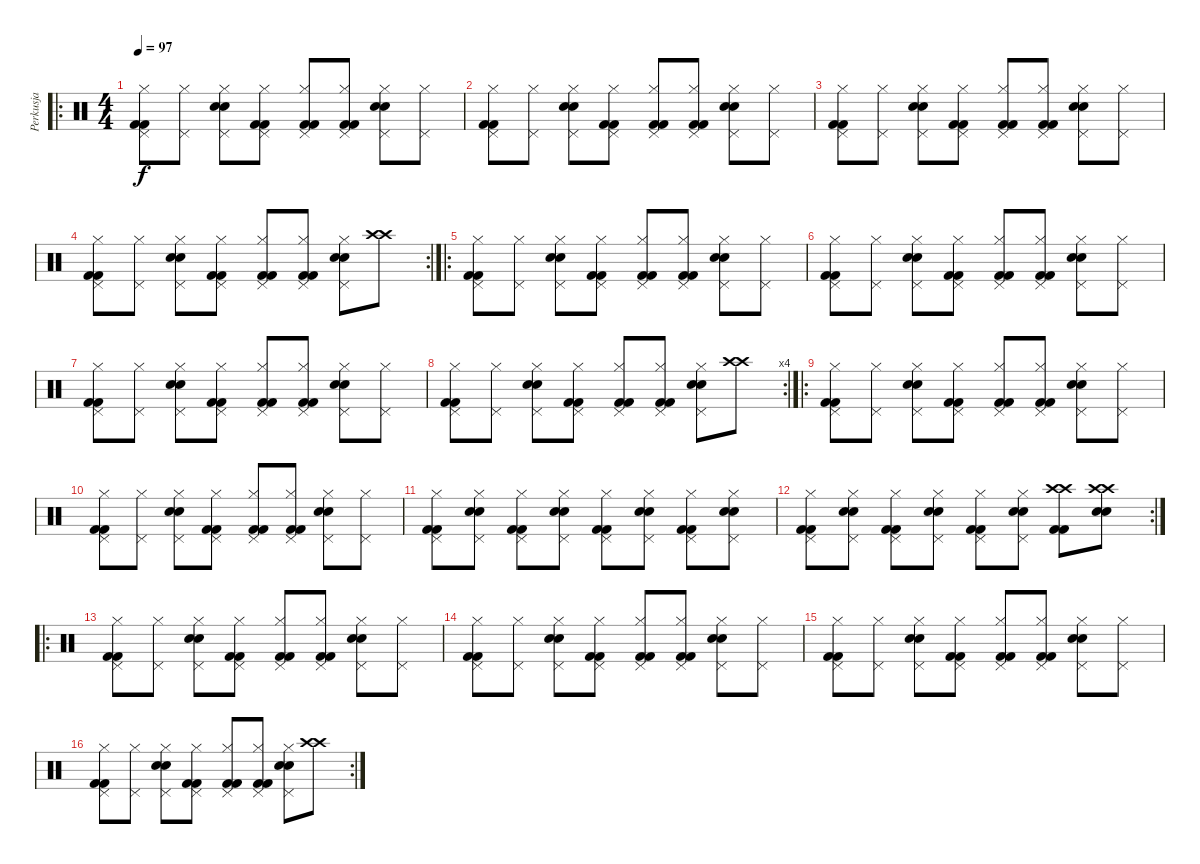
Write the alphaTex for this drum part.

\track ("Perkusja" "Perkusja") {instrument percussion}
\staff {score}
\articulation defaults
\ro
\ts (4 4)
\tempo 97
\clef neutral
\ks c
("Kick (hit) 2" "Kick (hit) 2" "Hi-Hat (closed)" "Pedal Hi-Hat (hit)").8{dy f} ("Hi-Hat (closed)" "Pedal Hi-Hat (hit)").8 ("Electric Snare (hit)" "Electric Snare (hit)" "Hi-Hat (closed)" "Pedal Hi-Hat (hit)").8 ("Kick (hit) 2" "Kick (hit) 2" "Hi-Hat (closed)" "Pedal Hi-Hat (hit)").8 ("Kick (hit) 2" "Kick (hit) 2" "Hi-Hat (closed)" "Pedal Hi-Hat (hit)").8 ("Kick (hit) 2" "Kick (hit) 2" "Hi-Hat (closed)" "Pedal Hi-Hat (hit)").8 ("Electric Snare (hit)" "Electric Snare (hit)" "Hi-Hat (closed)" "Pedal Hi-Hat (hit)").8 ("Hi-Hat (closed)" "Pedal Hi-Hat (hit)").8 |
("Kick (hit) 2" "Kick (hit) 2" "Hi-Hat (closed)" "Pedal Hi-Hat (hit)").8 ("Hi-Hat (closed)" "Pedal Hi-Hat (hit)").8 ("Electric Snare (hit)" "Electric Snare (hit)" "Hi-Hat (closed)" "Pedal Hi-Hat (hit)").8 ("Kick (hit) 2" "Kick (hit) 2" "Hi-Hat (closed)" "Pedal Hi-Hat (hit)").8 ("Kick (hit) 2" "Kick (hit) 2" "Hi-Hat (closed)" "Pedal Hi-Hat (hit)").8 ("Kick (hit) 2" "Kick (hit) 2" "Hi-Hat (closed)" "Pedal Hi-Hat (hit)").8 ("Electric Snare (hit)" "Electric Snare (hit)" "Hi-Hat (closed)" "Pedal Hi-Hat (hit)").8 ("Hi-Hat (closed)" "Pedal Hi-Hat (hit)").8 |
("Kick (hit) 2" "Kick (hit) 2" "Hi-Hat (closed)" "Pedal Hi-Hat (hit)").8 ("Hi-Hat (closed)" "Pedal Hi-Hat (hit)").8 ("Electric Snare (hit)" "Electric Snare (hit)" "Hi-Hat (closed)" "Pedal Hi-Hat (hit)").8 ("Kick (hit) 2" "Kick (hit) 2" "Hi-Hat (closed)" "Pedal Hi-Hat (hit)").8 ("Kick (hit) 2" "Kick (hit) 2" "Hi-Hat (closed)" "Pedal Hi-Hat (hit)").8 ("Kick (hit) 2" "Kick (hit) 2" "Hi-Hat (closed)" "Pedal Hi-Hat (hit)").8 ("Electric Snare (hit)" "Electric Snare (hit)" "Hi-Hat (closed)" "Pedal Hi-Hat (hit)").8 ("Hi-Hat (closed)" "Pedal Hi-Hat (hit)").8 |
\rc 2
("Kick (hit) 2" "Kick (hit) 2" "Hi-Hat (closed)" "Pedal Hi-Hat (hit)").8 ("Hi-Hat (closed)" "Pedal Hi-Hat (hit)").8 ("Electric Snare (hit)" "Electric Snare (hit)" "Hi-Hat (closed)" "Pedal Hi-Hat (hit)").8 ("Kick (hit) 2" "Kick (hit) 2" "Hi-Hat (closed)" "Pedal Hi-Hat (hit)").8 ("Kick (hit) 2" "Kick (hit) 2" "Hi-Hat (closed)" "Pedal Hi-Hat (hit)").8 ("Kick (hit) 2" "Kick (hit) 2" "Hi-Hat (closed)" "Pedal Hi-Hat (hit)").8 ("Electric Snare (hit)" "Electric Snare (hit)" "Hi-Hat (closed)" "Pedal Hi-Hat (hit)").8 ("Crash high (hit)" "Crash high (hit)").8 |
\ro
("Kick (hit) 2" "Kick (hit) 2" "Hi-Hat (closed)" "Pedal Hi-Hat (hit)").8 ("Hi-Hat (closed)" "Pedal Hi-Hat (hit)").8 ("Electric Snare (hit)" "Electric Snare (hit)" "Hi-Hat (closed)" "Pedal Hi-Hat (hit)").8 ("Kick (hit) 2" "Kick (hit) 2" "Hi-Hat (closed)" "Pedal Hi-Hat (hit)").8 ("Kick (hit) 2" "Kick (hit) 2" "Hi-Hat (closed)" "Pedal Hi-Hat (hit)").8 ("Kick (hit) 2" "Kick (hit) 2" "Hi-Hat (closed)" "Pedal Hi-Hat (hit)").8 ("Electric Snare (hit)" "Electric Snare (hit)" "Hi-Hat (closed)" "Pedal Hi-Hat (hit)").8 ("Hi-Hat (closed)" "Pedal Hi-Hat (hit)").8 |
("Kick (hit) 2" "Kick (hit) 2" "Hi-Hat (closed)" "Pedal Hi-Hat (hit)").8 ("Hi-Hat (closed)" "Pedal Hi-Hat (hit)").8 ("Electric Snare (hit)" "Electric Snare (hit)" "Hi-Hat (closed)" "Pedal Hi-Hat (hit)").8 ("Kick (hit) 2" "Kick (hit) 2" "Hi-Hat (closed)" "Pedal Hi-Hat (hit)").8 ("Kick (hit) 2" "Kick (hit) 2" "Hi-Hat (closed)" "Pedal Hi-Hat (hit)").8 ("Kick (hit) 2" "Kick (hit) 2" "Hi-Hat (closed)" "Pedal Hi-Hat (hit)").8 ("Electric Snare (hit)" "Electric Snare (hit)" "Hi-Hat (closed)" "Pedal Hi-Hat (hit)").8 ("Hi-Hat (closed)" "Pedal Hi-Hat (hit)").8 |
("Kick (hit) 2" "Kick (hit) 2" "Hi-Hat (closed)" "Pedal Hi-Hat (hit)").8 ("Hi-Hat (closed)" "Pedal Hi-Hat (hit)").8 ("Electric Snare (hit)" "Electric Snare (hit)" "Hi-Hat (closed)" "Pedal Hi-Hat (hit)").8 ("Kick (hit) 2" "Kick (hit) 2" "Hi-Hat (closed)" "Pedal Hi-Hat (hit)").8 ("Kick (hit) 2" "Kick (hit) 2" "Hi-Hat (closed)" "Pedal Hi-Hat (hit)").8 ("Kick (hit) 2" "Kick (hit) 2" "Hi-Hat (closed)" "Pedal Hi-Hat (hit)").8 ("Electric Snare (hit)" "Electric Snare (hit)" "Hi-Hat (closed)" "Pedal Hi-Hat (hit)").8 ("Hi-Hat (closed)" "Pedal Hi-Hat (hit)").8 |
\rc 4
("Kick (hit) 2" "Kick (hit) 2" "Hi-Hat (closed)" "Pedal Hi-Hat (hit)").8 ("Hi-Hat (closed)" "Pedal Hi-Hat (hit)").8 ("Electric Snare (hit)" "Electric Snare (hit)" "Hi-Hat (closed)" "Pedal Hi-Hat (hit)").8 ("Kick (hit) 2" "Kick (hit) 2" "Hi-Hat (closed)" "Pedal Hi-Hat (hit)").8 ("Kick (hit) 2" "Kick (hit) 2" "Hi-Hat (closed)" "Pedal Hi-Hat (hit)").8 ("Kick (hit) 2" "Kick (hit) 2" "Hi-Hat (closed)" "Pedal Hi-Hat (hit)").8 ("Electric Snare (hit)" "Electric Snare (hit)" "Hi-Hat (closed)" "Pedal Hi-Hat (hit)").8 ("Crash high (hit)" "Crash high (hit)").8 |
\ro
("Kick (hit) 2" "Kick (hit) 2" "Hi-Hat (closed)" "Pedal Hi-Hat (hit)").8 ("Hi-Hat (closed)" "Pedal Hi-Hat (hit)").8 ("Electric Snare (hit)" "Electric Snare (hit)" "Hi-Hat (closed)" "Pedal Hi-Hat (hit)").8 ("Kick (hit) 2" "Kick (hit) 2" "Hi-Hat (closed)" "Pedal Hi-Hat (hit)").8 ("Kick (hit) 2" "Kick (hit) 2" "Hi-Hat (closed)" "Pedal Hi-Hat (hit)").8 ("Kick (hit) 2" "Kick (hit) 2" "Hi-Hat (closed)" "Pedal Hi-Hat (hit)").8 ("Electric Snare (hit)" "Electric Snare (hit)" "Hi-Hat (closed)" "Pedal Hi-Hat (hit)").8 ("Hi-Hat (closed)" "Pedal Hi-Hat (hit)").8 |
("Kick (hit) 2" "Kick (hit) 2" "Hi-Hat (closed)" "Pedal Hi-Hat (hit)").8 ("Hi-Hat (closed)" "Pedal Hi-Hat (hit)").8 ("Electric Snare (hit)" "Electric Snare (hit)" "Hi-Hat (closed)" "Pedal Hi-Hat (hit)").8 ("Kick (hit) 2" "Kick (hit) 2" "Hi-Hat (closed)" "Pedal Hi-Hat (hit)").8 ("Kick (hit) 2" "Kick (hit) 2" "Hi-Hat (closed)" "Pedal Hi-Hat (hit)").8 ("Kick (hit) 2" "Kick (hit) 2" "Hi-Hat (closed)" "Pedal Hi-Hat (hit)").8 ("Electric Snare (hit)" "Electric Snare (hit)" "Hi-Hat (closed)" "Pedal Hi-Hat (hit)").8 ("Hi-Hat (closed)" "Pedal Hi-Hat (hit)").8 |
("Kick (hit) 2" "Kick (hit) 2" "Hi-Hat (closed)" "Pedal Hi-Hat (hit)").8 ("Electric Snare (hit)" "Electric Snare (hit)" "Hi-Hat (closed)" "Pedal Hi-Hat (hit)").8 ("Kick (hit) 2" "Kick (hit) 2" "Hi-Hat (closed)" "Pedal Hi-Hat (hit)").8 ("Electric Snare (hit)" "Electric Snare (hit)" "Hi-Hat (closed)" "Pedal Hi-Hat (hit)").8 ("Kick (hit) 2" "Kick (hit) 2" "Hi-Hat (closed)" "Pedal Hi-Hat (hit)").8 ("Electric Snare (hit)" "Electric Snare (hit)" "Hi-Hat (closed)" "Pedal Hi-Hat (hit)").8 ("Kick (hit) 2" "Kick (hit) 2" "Hi-Hat (closed)" "Pedal Hi-Hat (hit)").8 ("Electric Snare (hit)" "Electric Snare (hit)" "Hi-Hat (closed)" "Pedal Hi-Hat (hit)").8 |
\rc 2
("Kick (hit) 2" "Kick (hit) 2" "Hi-Hat (closed)" "Pedal Hi-Hat (hit)").8 ("Electric Snare (hit)" "Electric Snare (hit)" "Hi-Hat (closed)" "Pedal Hi-Hat (hit)").8 ("Kick (hit) 2" "Kick (hit) 2" "Hi-Hat (closed)" "Pedal Hi-Hat (hit)").8 ("Electric Snare (hit)" "Electric Snare (hit)" "Hi-Hat (closed)" "Pedal Hi-Hat (hit)").8 ("Kick (hit) 2" "Kick (hit) 2" "Hi-Hat (closed)" "Pedal Hi-Hat (hit)").8 ("Electric Snare (hit)" "Electric Snare (hit)" "Hi-Hat (closed)" "Pedal Hi-Hat (hit)").8 ("Kick (hit) 2" "Kick (hit) 2" "Crash high (hit)" "Crash high (hit)").8 ("Electric Snare (hit)" "Electric Snare (hit)" "Crash high (hit)" "Crash high (hit)").8 |
\ro
("Kick (hit) 2" "Kick (hit) 2" "Hi-Hat (closed)" "Pedal Hi-Hat (hit)").8 ("Hi-Hat (closed)" "Pedal Hi-Hat (hit)").8 ("Electric Snare (hit)" "Electric Snare (hit)" "Hi-Hat (closed)" "Pedal Hi-Hat (hit)").8 ("Kick (hit) 2" "Kick (hit) 2" "Hi-Hat (closed)" "Pedal Hi-Hat (hit)").8 ("Kick (hit) 2" "Kick (hit) 2" "Hi-Hat (closed)" "Pedal Hi-Hat (hit)").8 ("Kick (hit) 2" "Kick (hit) 2" "Hi-Hat (closed)" "Pedal Hi-Hat (hit)").8 ("Electric Snare (hit)" "Electric Snare (hit)" "Hi-Hat (closed)" "Pedal Hi-Hat (hit)").8 ("Hi-Hat (closed)" "Pedal Hi-Hat (hit)").8 |
("Kick (hit) 2" "Kick (hit) 2" "Hi-Hat (closed)" "Pedal Hi-Hat (hit)").8 ("Hi-Hat (closed)" "Pedal Hi-Hat (hit)").8 ("Electric Snare (hit)" "Electric Snare (hit)" "Hi-Hat (closed)" "Pedal Hi-Hat (hit)").8 ("Kick (hit) 2" "Kick (hit) 2" "Hi-Hat (closed)" "Pedal Hi-Hat (hit)").8 ("Kick (hit) 2" "Kick (hit) 2" "Hi-Hat (closed)" "Pedal Hi-Hat (hit)").8 ("Kick (hit) 2" "Kick (hit) 2" "Hi-Hat (closed)" "Pedal Hi-Hat (hit)").8 ("Electric Snare (hit)" "Electric Snare (hit)" "Hi-Hat (closed)" "Pedal Hi-Hat (hit)").8 ("Hi-Hat (closed)" "Pedal Hi-Hat (hit)").8 |
("Kick (hit) 2" "Kick (hit) 2" "Hi-Hat (closed)" "Pedal Hi-Hat (hit)").8 ("Hi-Hat (closed)" "Pedal Hi-Hat (hit)").8 ("Electric Snare (hit)" "Electric Snare (hit)" "Hi-Hat (closed)" "Pedal Hi-Hat (hit)").8 ("Kick (hit) 2" "Kick (hit) 2" "Hi-Hat (closed)" "Pedal Hi-Hat (hit)").8 ("Kick (hit) 2" "Kick (hit) 2" "Hi-Hat (closed)" "Pedal Hi-Hat (hit)").8 ("Kick (hit) 2" "Kick (hit) 2" "Hi-Hat (closed)" "Pedal Hi-Hat (hit)").8 ("Electric Snare (hit)" "Electric Snare (hit)" "Hi-Hat (closed)" "Pedal Hi-Hat (hit)").8 ("Hi-Hat (closed)" "Pedal Hi-Hat (hit)").8 |
\rc 2
("Kick (hit) 2" "Kick (hit) 2" "Hi-Hat (closed)" "Pedal Hi-Hat (hit)").8 ("Hi-Hat (closed)" "Pedal Hi-Hat (hit)").8 ("Electric Snare (hit)" "Electric Snare (hit)" "Hi-Hat (closed)" "Pedal Hi-Hat (hit)").8 ("Kick (hit) 2" "Kick (hit) 2" "Hi-Hat (closed)" "Pedal Hi-Hat (hit)").8 ("Kick (hit) 2" "Kick (hit) 2" "Hi-Hat (closed)" "Pedal Hi-Hat (hit)").8 ("Kick (hit) 2" "Kick (hit) 2" "Hi-Hat (closed)" "Pedal Hi-Hat (hit)").8 ("Electric Snare (hit)" "Electric Snare (hit)" "Hi-Hat (closed)" "Pedal Hi-Hat (hit)").8 ("Crash high (hit)" "Crash high (hit)").8
